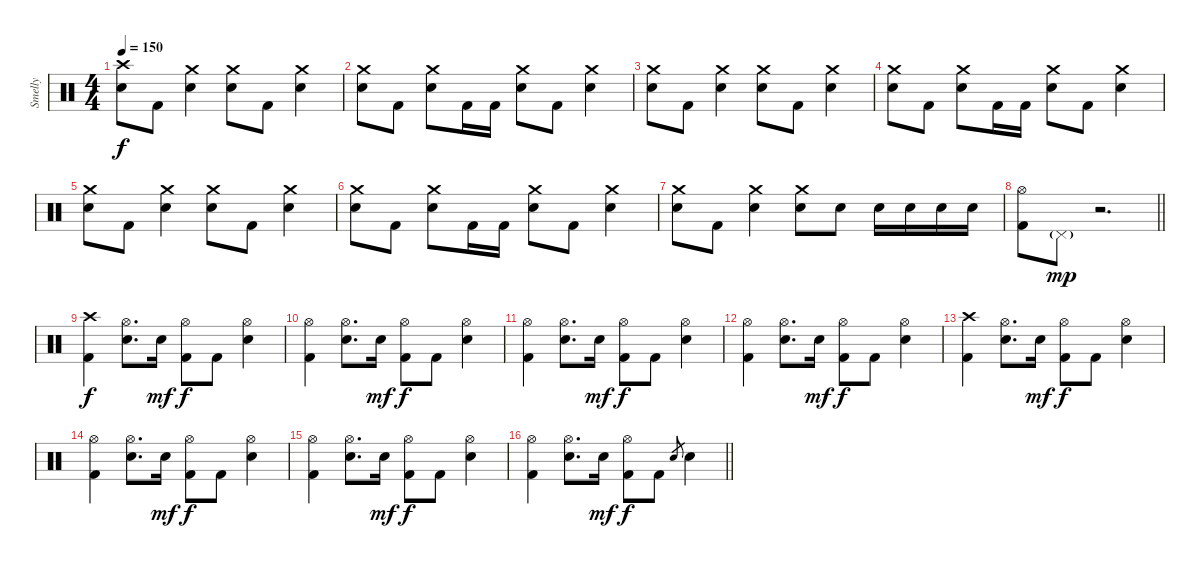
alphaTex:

\track ("Smelly" "Smelly") {instrument percussion}
\staff {score}
\articulation defaults
\ts (4 4)
\section ("" "")
\tempo 150
\clef neutral
\ks c
("Crash high (hit)" "Electric Snare (hit)").8{dy f} "Kick (hit) 2".8 ("Crash medium (hit)" "Electric Snare (hit)").4 ("Crash medium (hit)" "Electric Snare (hit)").8 "Kick (hit) 2".8 ("Crash medium (hit)" "Electric Snare (hit)").4 |
("Crash medium (hit)" "Electric Snare (hit)").8 "Kick (hit) 2".8 ("Crash medium (hit)" "Electric Snare (hit)").8 "Kick (hit) 2".16 "Kick (hit) 2".16 ("Crash medium (hit)" "Electric Snare (hit)").8 "Kick (hit) 2".8 ("Crash medium (hit)" "Electric Snare (hit)").4 |
("Crash medium (hit)" "Electric Snare (hit)").8 "Kick (hit) 2".8 ("Crash medium (hit)" "Electric Snare (hit)").4 ("Crash medium (hit)" "Electric Snare (hit)").8 "Kick (hit) 2".8 ("Crash medium (hit)" "Electric Snare (hit)").4 |
("Crash medium (hit)" "Electric Snare (hit)").8 "Kick (hit) 2".8 ("Crash medium (hit)" "Electric Snare (hit)").8 "Kick (hit) 2".16 "Kick (hit) 2".16 ("Crash medium (hit)" "Electric Snare (hit)").8 "Kick (hit) 2".8 ("Crash medium (hit)" "Electric Snare (hit)").4 |
("Crash medium (hit)" "Electric Snare (hit)").8 "Kick (hit) 2".8 ("Crash medium (hit)" "Electric Snare (hit)").4 ("Crash medium (hit)" "Electric Snare (hit)").8 "Kick (hit) 2".8 ("Crash medium (hit)" "Electric Snare (hit)").4 |
("Crash medium (hit)" "Electric Snare (hit)").8 "Kick (hit) 2".8 ("Crash medium (hit)" "Electric Snare (hit)").8 "Kick (hit) 2".16 "Kick (hit) 2".16 ("Crash medium (hit)" "Electric Snare (hit)").8 "Kick (hit) 2".8 ("Crash medium (hit)" "Electric Snare (hit)").4 |
("Crash medium (hit)" "Electric Snare (hit)").8 "Kick (hit) 2".8 ("Crash medium (hit)" "Electric Snare (hit)").4 ("Crash medium (hit)" "Electric Snare (hit)").8 "Electric Snare (hit)".8 "Electric Snare (hit)".16 "Electric Snare (hit)".16 "Electric Snare (hit)".16 "Electric Snare (hit)".16 |
\barLineRight lightlight
("Hi-Hat (open)" "Kick (hit) 2").8 "Pedal Hi-Hat (hit)"{g}.8{dy mp} r.2{d} |
\section ("" "")
("Crash high (hit)" "Kick (hit) 2").4{dy f} ("Hi-Hat (open)" "Electric Snare (hit)").8{d} "Electric Snare (hit)".16{dy mf} ("Hi-Hat (open)" "Kick (hit) 2").8{dy f} "Kick (hit) 2".8 ("Hi-Hat (open)" "Electric Snare (hit)").4 |
("Hi-Hat (open)" "Kick (hit) 2").4 ("Hi-Hat (open)" "Electric Snare (hit)").8{d} "Electric Snare (hit)".16{dy mf} ("Hi-Hat (open)" "Kick (hit) 2").8{dy f} "Kick (hit) 2".8 ("Hi-Hat (open)" "Electric Snare (hit)").4 |
("Hi-Hat (open)" "Kick (hit) 2").4 ("Hi-Hat (open)" "Electric Snare (hit)").8{d} "Electric Snare (hit)".16{dy mf} ("Hi-Hat (open)" "Kick (hit) 2").8{dy f} "Kick (hit) 2".8 ("Hi-Hat (open)" "Electric Snare (hit)").4 |
("Hi-Hat (open)" "Kick (hit) 2").4 ("Hi-Hat (open)" "Electric Snare (hit)").8{d} "Electric Snare (hit)".16{dy mf} ("Hi-Hat (open)" "Kick (hit) 2").8{dy f} "Kick (hit) 2".8 ("Hi-Hat (open)" "Electric Snare (hit)").4 |
("Crash high (hit)" "Kick (hit) 2").4 ("Hi-Hat (open)" "Electric Snare (hit)").8{d} "Electric Snare (hit)".16{dy mf} ("Hi-Hat (open)" "Kick (hit) 2").8{dy f} "Kick (hit) 2".8 ("Hi-Hat (open)" "Electric Snare (hit)").4 |
("Hi-Hat (open)" "Kick (hit) 2").4 ("Hi-Hat (open)" "Electric Snare (hit)").8{d} "Electric Snare (hit)".16{dy mf} ("Hi-Hat (open)" "Kick (hit) 2").8{dy f} "Kick (hit) 2".8 ("Hi-Hat (open)" "Electric Snare (hit)").4 |
("Hi-Hat (open)" "Kick (hit) 2").4 ("Hi-Hat (open)" "Electric Snare (hit)").8{d} "Electric Snare (hit)".16{dy mf} ("Hi-Hat (open)" "Kick (hit) 2").8{dy f} "Kick (hit) 2".8 ("Hi-Hat (open)" "Electric Snare (hit)").4 |
\barLineRight lightlight
("Hi-Hat (open)" "Kick (hit) 2").4 ("Hi-Hat (open)" "Electric Snare (hit)").8{d} "Electric Snare (hit)".16{dy mf} ("Hi-Hat (open)" "Kick (hit) 2").8{dy f} "Kick (hit) 2".8 "Electric Snare (hit)".8{gr} "Electric Snare (hit)".4
